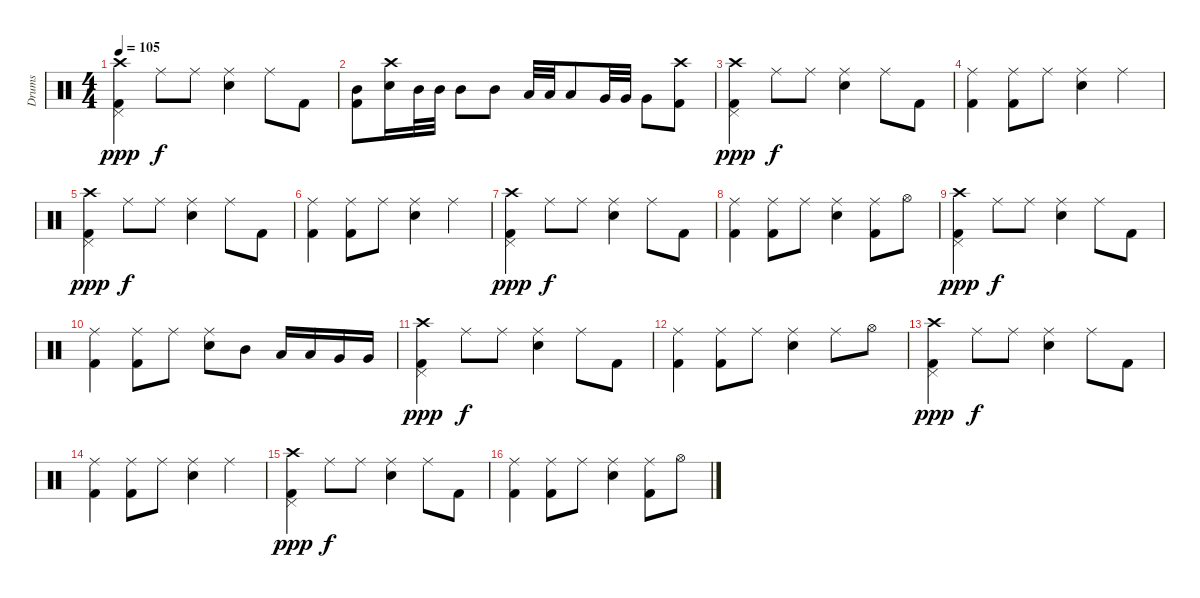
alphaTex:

\track ("Drums" "Drums") {instrument percussion}
\staff {score}
\articulation defaults
\ts (4 4)
\tempo 105
\clef neutral
\ks c
("Crash high (hit)" "Pedal Hi-Hat (hit)" "Kick (hit) 2").4{dy ppp} "Ride (middle)".8{dy f} "Ride (middle)".8 ("Ride (middle)" "Electric Snare (hit)").4 "Ride (middle)".8 "Kick (hit) 2".8 |
("Mid Tom (hit)" "Kick (hit) 2").8 ("Crash high (hit)" "Electric Snare (hit)").16 "Mid Tom (hit)".32 "Mid Tom (hit)".32 "Mid Tom (hit)".8 "Mid Tom (hit)".8 "Low Tom (hit)".32 "Low Tom (hit)".32 "Low Tom (hit)".8 "Very Low Tom (hit)".32 "Very Low Tom (hit)".32 "Very Low Tom (hit)".8 ("Crash high (hit)" "Kick (hit) 2").8 |
("Crash high (hit)" "Pedal Hi-Hat (hit)" "Kick (hit) 2").4{dy ppp} "Ride (middle)".8{dy f} "Ride (middle)".8 ("Ride (middle)" "Electric Snare (hit)").4 "Ride (middle)".8 "Kick (hit) 2".8 |
("Ride (middle)" "Kick (hit) 2").4 ("Ride (middle)" "Kick (hit) 2").8 "Ride (middle)".8 ("Ride (middle)" "Electric Snare (hit)").4 "Ride (middle)".4 |
("Crash high (hit)" "Pedal Hi-Hat (hit)" "Kick (hit) 2").4{dy ppp} "Ride (middle)".8{dy f} "Ride (middle)".8 ("Ride (middle)" "Electric Snare (hit)").4 "Ride (middle)".8 "Kick (hit) 2".8 |
("Ride (middle)" "Kick (hit) 2").4 ("Ride (middle)" "Kick (hit) 2").8 "Ride (middle)".8 ("Ride (middle)" "Electric Snare (hit)").4 "Ride (middle)".4 |
("Crash high (hit)" "Pedal Hi-Hat (hit)" "Kick (hit) 2").4{dy ppp} "Ride (middle)".8{dy f} "Ride (middle)".8 ("Ride (middle)" "Electric Snare (hit)").4 "Ride (middle)".8 "Kick (hit) 2".8 |
("Ride (middle)" "Kick (hit) 2").4 ("Ride (middle)" "Kick (hit) 2").8 "Ride (middle)".8 ("Ride (middle)" "Electric Snare (hit)").4 ("Ride (middle)" "Kick (hit) 2").8 "Hi-Hat (open)".8 |
("Crash high (hit)" "Pedal Hi-Hat (hit)" "Kick (hit) 2").4{dy ppp} "Ride (middle)".8{dy f} "Ride (middle)".8 ("Ride (middle)" "Electric Snare (hit)").4 "Ride (middle)".8 "Kick (hit) 2".8 |
("Ride (middle)" "Kick (hit) 2").4 ("Ride (middle)" "Kick (hit) 2").8 "Ride (middle)".8 ("Ride (middle)" "Electric Snare (hit)").8 "Mid Tom (hit)".8 "Low Tom (hit)".16 "Low Tom (hit)".16 "Very Low Tom (hit)".16 "Very Low Tom (hit)".16 |
("Crash high (hit)" "Pedal Hi-Hat (hit)" "Kick (hit) 2").4{dy ppp} "Ride (middle)".8{dy f} "Ride (middle)".8 ("Ride (middle)" "Electric Snare (hit)").4 "Ride (middle)".8 "Kick (hit) 2".8 |
("Ride (middle)" "Kick (hit) 2").4 ("Ride (middle)" "Kick (hit) 2").8 "Ride (middle)".8 ("Ride (middle)" "Electric Snare (hit)").4 "Ride (middle)".8 "Hi-Hat (open)".8 |
("Crash high (hit)" "Pedal Hi-Hat (hit)" "Kick (hit) 2").4{dy ppp} "Ride (middle)".8{dy f} "Ride (middle)".8 ("Ride (middle)" "Electric Snare (hit)").4 "Ride (middle)".8 "Kick (hit) 2".8 |
("Ride (middle)" "Kick (hit) 2").4 ("Ride (middle)" "Kick (hit) 2").8 "Ride (middle)".8 ("Ride (middle)" "Electric Snare (hit)").4 "Ride (middle)".4 |
("Crash high (hit)" "Pedal Hi-Hat (hit)" "Kick (hit) 2").4{dy ppp} "Ride (middle)".8{dy f} "Ride (middle)".8 ("Ride (middle)" "Electric Snare (hit)").4 "Ride (middle)".8 "Kick (hit) 2".8 |
("Ride (middle)" "Kick (hit) 2").4 ("Ride (middle)" "Kick (hit) 2").8 "Ride (middle)".8 ("Ride (middle)" "Electric Snare (hit)").4 ("Ride (middle)" "Kick (hit) 2").8 "Hi-Hat (open)".8
